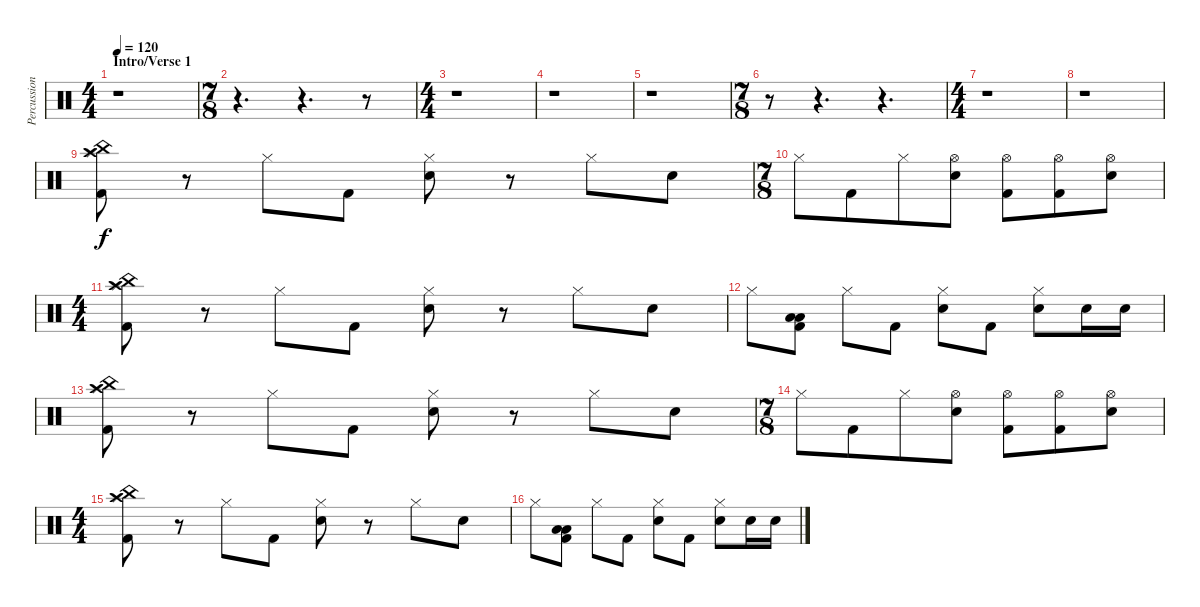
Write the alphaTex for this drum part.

\track ("Percussion" "Percussion") {instrument percussion}
\staff {score}
\articulation defaults
\ts (4 4)
\section ("" "Intro/Verse 1")
\tempo 120
\clef neutral
\ks c
r.1{dy f} |
\ts (7 8)
r.4{d} r.4{d} r.8 |
\ts (4 4)
r.1 |
r.1 |
r.1 |
\ts (7 8)
r.8 r.4{d} r.4{d} |
\ts (4 4)
r.1 |
r.1 |
("Splash (hit)" "Crash high (hit)" "China (hit)" "Kick (hit) 2").8 r.8 "Hi-Hat (closed)".8 "Kick (hit) 2".8 ("Hi-Hat (closed)" "Electric Snare (hit)").8 r.8 "Hi-Hat (closed)".8 "Electric Snare (hit)".8 |
\ts (7 8)
"Hi-Hat (closed)".8 "Kick (hit) 2".8 "Hi-Hat (closed)".8 ("Hi-Hat (open)" "Electric Snare (hit)").8 ("Hi-Hat (open)" "Kick (hit) 2").8 ("Hi-Hat (open)" "Kick (hit) 2").8 ("Hi-Hat (open)" "Electric Snare (hit)").8 |
\ts (4 4)
("Splash (hit)" "Crash high (hit)" "China (hit)" "Kick (hit) 2").8 r.8 "Hi-Hat (closed)".8 "Kick (hit) 2".8 ("Hi-Hat (closed)" "Electric Snare (hit)").8 r.8 "Hi-Hat (closed)".8 "Electric Snare (hit)".8 |
"Hi-Hat (closed)".8 ("Low Tom (hit)" "Low Floor Tom (hit)" "Kick (hit) 2").8 "Hi-Hat (closed)".8 "Kick (hit) 2".8 ("Hi-Hat (closed)" "Electric Snare (hit)").8 "Kick (hit) 2".8 ("Hi-Hat (closed)" "Electric Snare (hit)").8 "Electric Snare (hit)".16 "Electric Snare (hit)".16 |
("Splash (hit)" "Crash high (hit)" "China (hit)" "Kick (hit) 2").8 r.8 "Hi-Hat (closed)".8 "Kick (hit) 2".8 ("Hi-Hat (closed)" "Electric Snare (hit)").8 r.8 "Hi-Hat (closed)".8 "Electric Snare (hit)".8 |
\ts (7 8)
"Hi-Hat (closed)".8 "Kick (hit) 2".8 "Hi-Hat (closed)".8 ("Hi-Hat (open)" "Electric Snare (hit)").8 ("Hi-Hat (open)" "Kick (hit) 2").8 ("Hi-Hat (open)" "Kick (hit) 2").8 ("Hi-Hat (open)" "Electric Snare (hit)").8 |
\ts (4 4)
("Splash (hit)" "Crash high (hit)" "China (hit)" "Kick (hit) 2").8 r.8 "Hi-Hat (closed)".8 "Kick (hit) 2".8 ("Hi-Hat (closed)" "Electric Snare (hit)").8 r.8 "Hi-Hat (closed)".8 "Electric Snare (hit)".8 |
"Hi-Hat (closed)".8 ("Low Tom (hit)" "Low Floor Tom (hit)" "Kick (hit) 2").8 "Hi-Hat (closed)".8 "Kick (hit) 2".8 ("Hi-Hat (closed)" "Electric Snare (hit)").8 "Kick (hit) 2".8 ("Hi-Hat (closed)" "Electric Snare (hit)").8 "Electric Snare (hit)".16 "Electric Snare (hit)".16
